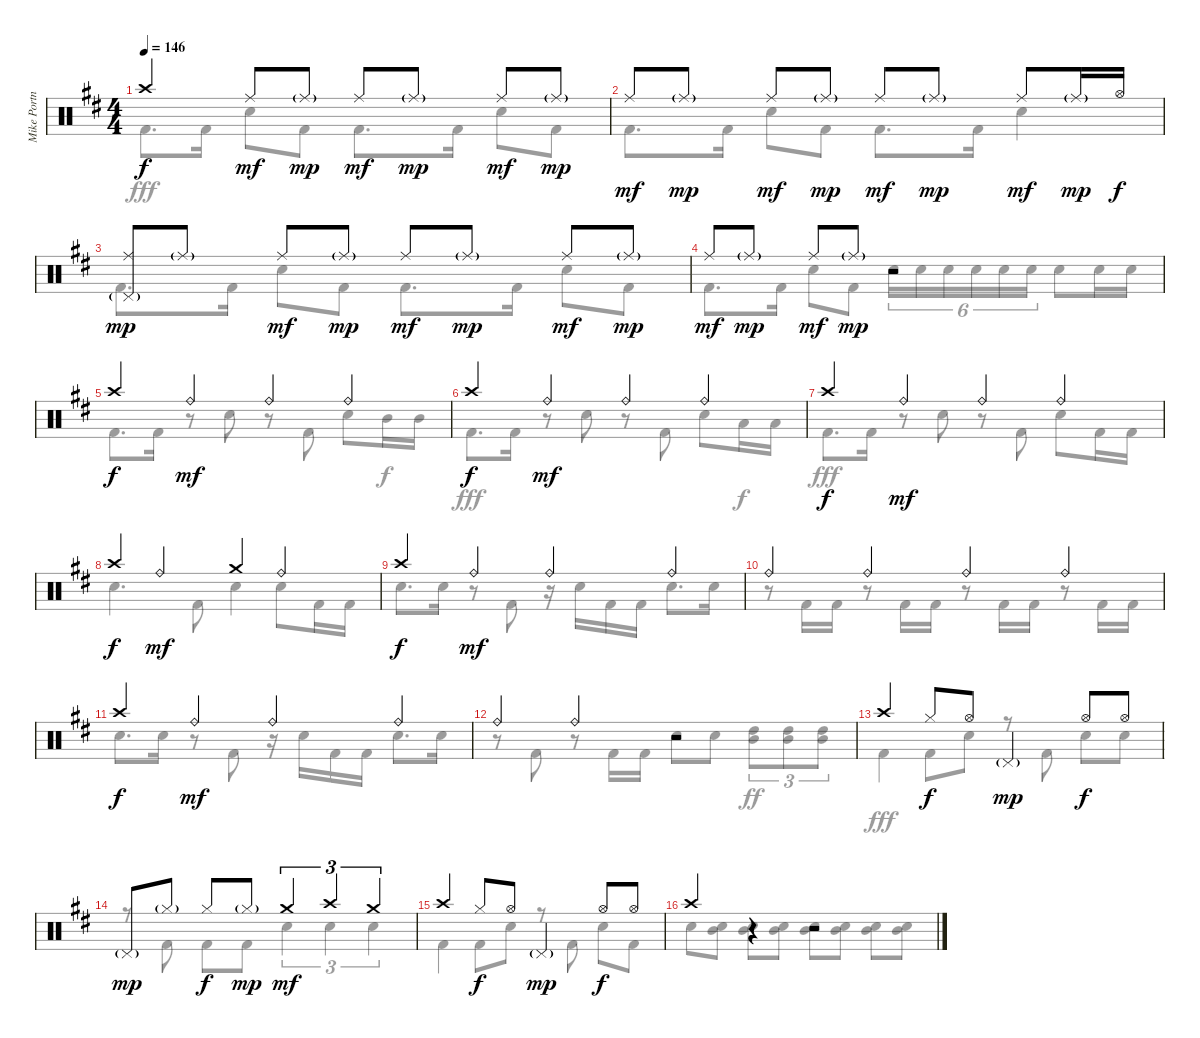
\track ("Mike Portnoy Drums" "Mike Portn") {instrument percussion}
\staff {score}
\articulation defaults
\voice
\ts (4 4)
\tempo 146
\clef neutral
\ks bminor "Crash high (hit)".4{dy f} "Ride (middle)".8{dy mf} "Ride (middle)"{g}.8{dy mp} "Ride (middle)".8{dy mf} "Ride (middle)"{g}.8{dy mp} "Ride (middle)".8{dy mf} "Ride (middle)"{g}.8{dy mp}
|
"Ride (middle)".8{dy mf} "Ride (middle)"{g}.8{dy mp} "Ride (middle)".8{dy mf} "Ride (middle)"{g}.8{dy mp} "Ride (middle)".8{dy mf} "Ride (middle)"{g}.8{dy mp} "Ride (middle)".8{dy mf} "Ride (middle)"{g}.16{dy mp} "Hi-Hat (open)".16{dy f} |
("Ride (middle)" "Pedal Hi-Hat (hit)"{g}).8{dy mp} "Ride (middle)"{g}.8 "Ride (middle)".8{dy mf} "Ride (middle)"{g}.8{dy mp} "Ride (middle)".8{dy mf} "Ride (middle)"{g}.8{dy mp} "Ride (middle)".8{dy mf} "Ride (middle)"{g}.8{dy mp} |
"Ride (middle)".8{dy mf} "Ride (middle)"{g}.8{dy mp} "Ride (middle)".8{dy mf} "Ride (middle)"{g}.8{dy mp} r.2 |
"Crash high (hit)".4{dy f} "Ride (bell)".4{dy mf} "Ride (bell)".4 "Ride (bell)".4 |
"Crash high (hit)".4{dy f} "Ride (bell)".4{dy mf} "Ride (bell)".4 "Ride (bell)".4 |
"Crash high (hit)".4{dy f} "Ride (bell)".4{dy mf} "Ride (bell)".4 "Ride (bell)".4 |
"Crash high (hit)".4{dy f} "Ride (bell)".4{dy mf} "Crash medium (hit)".4 "Ride (bell)".4 |
"Crash high (hit)".4{dy f} "Ride (bell)".4{dy mf} "Ride (bell)".4 "Ride (bell)".4 |
"Ride (bell)".4 "Ride (bell)".4 "Ride (bell)".4 "Ride (bell)".4 |
"Crash high (hit)".4{dy f} "Ride (bell)".4{dy mf} "Ride (bell)".4 "Ride (bell)".4 |
"Ride (bell)".4 "Ride (bell)".4 r.2 |
"Crash high (hit)".4 "Hi-Hat (closed)".8{dy f} "Hi-Hat (open)".8 "Pedal Hi-Hat (hit)"{g}.4{dy mp} "Hi-Hat (open)".8{dy f} "Hi-Hat (open)".8 |
"Pedal Hi-Hat (hit)"{g}.8{dy mp} "Hi-Hat (closed)"{g}.8 "Hi-Hat (closed)".8{dy f} "Hi-Hat (closed)"{g}.8{dy mp} "Crash medium (hit)".4{tu (3 2) dy mf} "Crash high (hit)".4{tu (3 2)} "Crash medium (hit)".4{tu (3 2)} |
"Crash high (hit)".4 "Hi-Hat (closed)".8{dy f} "Hi-Hat (open)".8 "Pedal Hi-Hat (hit)"{g}.4{dy mp} "Hi-Hat (open)".8{dy f} "Hi-Hat (open)".8 |
"Crash high (hit)".4 r.4 r.2
\voice
\clef neutral
\ottava regular
\simile none
\ks bminor "Kick (hit) 2".8{d dy fff} "Kick (hit) 2".16 "Snare (hit) 2".8 "Kick (hit) 2".8 "Kick (hit) 2".8{d} "Kick (hit) 2".16 "Snare (hit) 2".8 "Kick (hit) 2".8
|
"Kick (hit) 2".8{d} "Kick (hit) 2".16 "Snare (hit) 2".8 "Kick (hit) 2".8 "Kick (hit) 2".8{d} "Kick (hit) 2".16 "Snare (hit) 2".4 |
"Kick (hit) 2".8{d} "Kick (hit) 2".16 "Snare (hit) 2".8 "Kick (hit) 2".8 "Kick (hit) 2".8{d} "Kick (hit) 2".16 "Snare (hit) 2".8 "Kick (hit) 2".8 |
"Kick (hit) 2".8{d} "Kick (hit) 2".16 "Snare (hit) 2".8 "Kick (hit) 2".8 "Snare (hit) 2".16{tu (6 4)} "Snare (hit) 2".16{tu (6 4)} "Snare (hit) 2".16{tu (6 4)} "Snare (hit) 2".16{tu (6 4)} "Snare (hit) 2".16{tu (6 4)} "Snare (hit) 2".16{tu (6 4)} "Snare (hit) 2".8 "Snare (hit) 2".16 "Snare (hit) 2".16 |
"Kick (hit) 2".8{d} "Kick (hit) 2".16 r.8 "Snare (hit) 2".8 r.8 "Kick (hit) 2".8 "Snare (hit) 2".8 "Mid Tom (hit)".16{dy f} "Mid Tom (hit)".16 |
"Kick (hit) 2".8{d dy fff} "Kick (hit) 2".16 r.8 "Snare (hit) 2".8 r.8 "Kick (hit) 2".8 "Snare (hit) 2".8 "Low Tom (hit)".16{dy f} "Low Tom (hit)".16 |
"Kick (hit) 2".8{d dy fff} "Kick (hit) 2".16 r.8 "Snare (hit) 2".8 r.8 "Kick (hit) 2".8 "Snare (hit) 2".8 "Kick (hit) 2".16 "Kick (hit) 2".16 |
"Snare (hit) 2".4{d} "Kick (hit) 2".8 "Snare (hit) 2".4 "Snare (hit) 2".8 "Kick (hit) 2".16 "Kick (hit) 2".16 |
"Snare (hit) 2".8{d} "Snare (hit) 2".16 r.8 "Kick (hit) 2".8 r.16 "Snare (hit) 2".16 "Kick (hit) 2".16 "Kick (hit) 2".16 "Snare (hit) 2".8{d} "Snare (hit) 2".16 |
r.8 "Kick (hit) 2".16 "Kick (hit) 2".16 r.8 "Kick (hit) 2".16 "Kick (hit) 2".16 r.8 "Kick (hit) 2".16 "Kick (hit) 2".16 r.8 "Kick (hit) 2".16 "Kick (hit) 2".16 |
"Snare (hit) 2".8{d} "Snare (hit) 2".16 r.8 "Kick (hit) 2".8 r.16 "Snare (hit) 2".16 "Kick (hit) 2".16 "Kick (hit) 2".16 "Snare (hit) 2".8{d} "Snare (hit) 2".16 |
r.8 "Kick (hit) 2".8 r.8 "Kick (hit) 2".16 "Kick (hit) 2".16 "Snare (hit) 2".8 "Snare (hit) 2".8 ("High Tom (hit)" "Mid Tom (hit)").8{tu (3 2) dy ff} ("High Tom (hit)" "Mid Tom (hit)").8{tu (3 2)} ("High Tom (hit)" "Mid Tom (hit)").8{tu (3 2)} |
"Kick (hit) 2".4{dy fff} "Kick (hit) 2".8 "Snare (hit) 2".8 r.8 "Kick (hit) 2".8 "Snare (hit) 2".8 "Snare (hit) 2".8 |
r.8 "Kick (hit) 2".8 "Kick (hit) 2".8 "Kick (hit) 2".8 "Snare (hit) 2".4{tu (3 2)} "Snare (hit) 2".4{tu (3 2)} "Snare (hit) 2".4{tu (3 2)} |
"Kick (hit) 2".4 "Kick (hit) 2".8 "Snare (hit) 2".8 r.8 "Kick (hit) 2".8 "Snare (hit) 2".8 "Kick (hit) 2".8 |
"Snare (hit) 2".8 ("Mid Tom (hit)" "Snare (hit) 2").8 ("Mid Tom (hit)" "Snare (hit) 2").8 ("Mid Tom (hit)" "Snare (hit) 2").8 ("Mid Tom (hit)" "Snare (hit) 2").8 ("Mid Tom (hit)" "Snare (hit) 2").8 ("Mid Tom (hit)" "Snare (hit) 2").8 ("Mid Tom (hit)" "Snare (hit) 2").8
